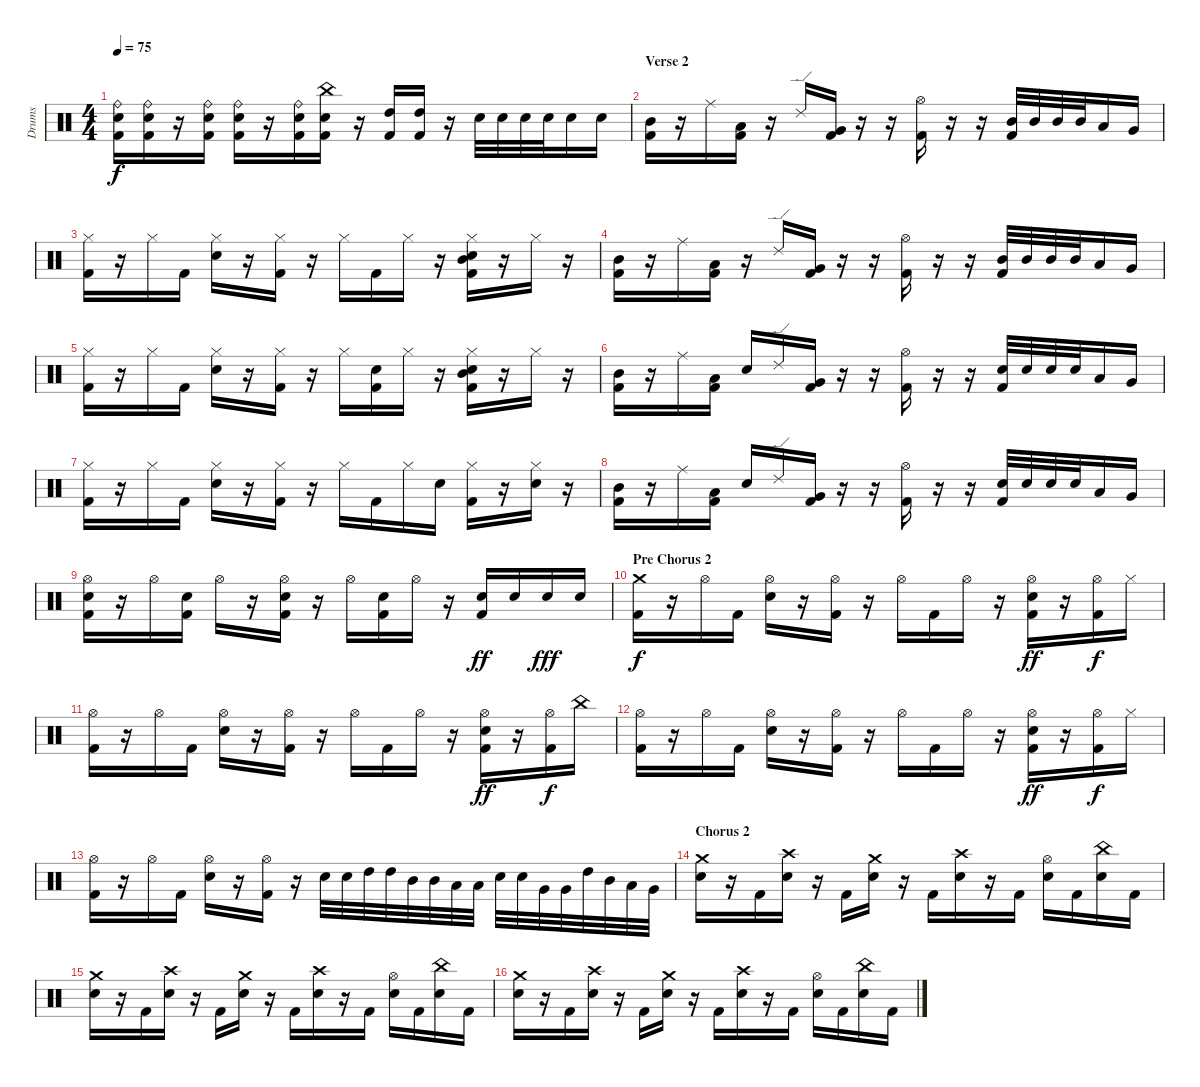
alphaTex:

\track ("Drums" "Drums") {instrument percussion}
\staff {score}
\articulation defaults
\ts (4 4)
\tempo 75
\clef neutral
\ks c
("Ride (bell)" "Snare (hit) 2" "Kick (hit) 2").16{dy f} ("Ride (bell)" "Snare (hit) 2" "Kick (hit) 2").16 r.16 ("Ride (bell)" "Snare (hit) 2" "Kick (hit) 2").16 ("Ride (bell)" "Snare (hit) 2" "Kick (hit) 2").16 r.16 ("Ride (bell)" "Snare (hit) 2" "Kick (hit) 2").16 ("China (hit)" "Snare (hit) 2" "Kick (hit) 2").16 r.16 ("High Tom (hit)" "Kick (hit) 2").16 ("High Tom (hit)" "Kick (hit) 2").16 r.16 "Snare (hit) 2".32 "Snare (hit) 2".32 "Snare (hit) 2".32 "Snare (hit) 2".32 "Snare (hit) 2".16 "Snare (hit) 2".16 |
\section ("" "Verse 2")
("Mid Tom (hit)" "Kick (hit) 2").16 r.16 "Ride (middle)".16 ("Low Tom (hit)" "Kick (hit) 2").16 r.16 "Ride (edge) 2".16 ("Very Low Tom (hit)" "Kick (hit) 2").16 r.16 r.16 ("Hi-Hat (open)" "Kick (hit) 2").16 r.16 r.16 ("Mid Tom (hit)" "Kick (hit) 2").32 "Mid Tom (hit)".32 "Mid Tom (hit)".32 "Mid Tom (hit)".32 "Low Tom (hit)".16 "Very Low Tom (hit)".16 |
("Hi-Hat (closed)" "Kick (hit) 2").16 r.16 "Hi-Hat (closed)".16 "Kick (hit) 2".16 ("Hi-Hat (closed)" "Snare (hit) 2").16 r.16 ("Hi-Hat (closed)" "Kick (hit) 2").16 r.16 "Hi-Hat (closed)".16 "Kick (hit) 2".16 "Hi-Hat (closed)".16 r.16 ("Mid Tom (hit)" "Hi-Hat (closed)" "Snare (hit) 2" "Kick (hit) 2").16 r.16 "Hi-Hat (closed)".16 r.16 |
("Mid Tom (hit)" "Kick (hit) 2").16 r.16 "Ride (middle)".16 ("Low Tom (hit)" "Kick (hit) 2").16 r.16 "Ride (edge) 2".16 ("Very Low Tom (hit)" "Kick (hit) 2").16 r.16 r.16 ("Hi-Hat (open)" "Kick (hit) 2").16 r.16 r.16 ("Mid Tom (hit)" "Kick (hit) 2").32 "Mid Tom (hit)".32 "Mid Tom (hit)".32 "Mid Tom (hit)".32 "Low Tom (hit)".16 "Very Low Tom (hit)".16 |
("Hi-Hat (closed)" "Kick (hit) 2").16 r.16 "Hi-Hat (closed)".16 "Kick (hit) 2".16 ("Hi-Hat (closed)" "Snare (hit) 2").16 r.16 ("Hi-Hat (closed)" "Kick (hit) 2").16 r.16 "Hi-Hat (closed)".16 ("Snare (hit) 2" "Kick (hit) 2").16 "Hi-Hat (closed)".16 r.16 ("Mid Tom (hit)" "Hi-Hat (closed)" "Snare (hit) 2" "Kick (hit) 2").16 r.16 "Hi-Hat (closed)".16 r.16 |
("Mid Tom (hit)" "Kick (hit) 2").16 r.16 "Ride (middle)".16 ("Low Tom (hit)" "Kick (hit) 2").16 "Snare (hit) 2".16 "Ride (edge) 2".16 ("Very Low Tom (hit)" "Kick (hit) 2").16 r.16 r.16 ("Hi-Hat (open)" "Kick (hit) 2").16 r.16 r.16 ("Snare (hit) 2" "Kick (hit) 2").32 "Snare (hit) 2".32 "Snare (hit) 2".32 "Snare (hit) 2".32 "Low Tom (hit)".16 "Very Low Tom (hit)".16 |
("Hi-Hat (closed)" "Kick (hit) 2").16 r.16 "Hi-Hat (closed)".16 "Kick (hit) 2".16 ("Hi-Hat (closed)" "Snare (hit) 2").16 r.16 ("Hi-Hat (closed)" "Kick (hit) 2").16 r.16 "Hi-Hat (closed)".16 "Kick (hit) 2".16 "Hi-Hat (closed)".16 "Snare (hit) 2".16 ("Hi-Hat (closed)" "Kick (hit) 2").16 r.16 ("Hi-Hat (closed)" "Snare (hit) 2").16 r.16 |
("Mid Tom (hit)" "Kick (hit) 2").16 r.16 "Ride (middle)".16 ("Low Tom (hit)" "Kick (hit) 2").16 "Snare (hit) 2".16 "Ride (edge) 2".16 ("Very Low Tom (hit)" "Kick (hit) 2").16 r.16 r.16 ("Hi-Hat (open)" "Kick (hit) 2").16 r.16 r.16 ("Snare (hit) 2" "Kick (hit) 2").32 "Snare (hit) 2".32 "Snare (hit) 2".32 "Snare (hit) 2".32 "Low Tom (hit)".16 "Very Low Tom (hit)".16 |
("Hi-Hat (open)" "Snare (hit) 2" "Kick (hit) 2").16 r.16 "Hi-Hat (open)".16 ("Snare (hit) 2" "Kick (hit) 2").16 "Hi-Hat (open)".16 r.16 ("Hi-Hat (open)" "Snare (hit) 2" "Kick (hit) 2").16 r.16 "Hi-Hat (open)".16 ("Snare (hit) 2" "Kick (hit) 2").16 "Hi-Hat (open)".16 r.16 ("Snare (hit) 2" "Kick (hit) 2").16{dy ff} "Snare (hit) 2".16 "Snare (hit) 2".16{dy fff} "Snare (hit) 2".16 |
\section ("" "Pre Chorus 2")
("Crash medium (hit)" "Kick (hit) 2").16{dy f} r.16 "Hi-Hat (open)".16 "Kick (hit) 2".16 ("Hi-Hat (open)" "Snare (hit) 2").16 r.16 ("Hi-Hat (open)" "Kick (hit) 2").16 r.16 "Hi-Hat (open)".16 "Kick (hit) 2".16 "Hi-Hat (open)".16 r.16 ("Hi-Hat (open)" "Snare (hit) 2" "Kick (hit) 2").16{dy ff} r.16 ("Hi-Hat (open)" "Kick (hit) 2").16{dy f} "Hi-Hat (closed)".16 |
("Hi-Hat (open)" "Kick (hit) 2").16 r.16 "Hi-Hat (open)".16 "Kick (hit) 2".16 ("Hi-Hat (open)" "Snare (hit) 2").16 r.16 ("Hi-Hat (open)" "Kick (hit) 2").16 r.16 "Hi-Hat (open)".16 "Kick (hit) 2".16 "Hi-Hat (open)".16 r.16 ("Hi-Hat (open)" "Snare (hit) 2" "Kick (hit) 2").16{dy ff} r.16 ("Hi-Hat (open)" "Kick (hit) 2").16{dy f} "China (hit)".16 |
("Hi-Hat (open)" "Kick (hit) 2").16 r.16 "Hi-Hat (open)".16 "Kick (hit) 2".16 ("Hi-Hat (open)" "Snare (hit) 2").16 r.16 ("Hi-Hat (open)" "Kick (hit) 2").16 r.16 "Hi-Hat (open)".16 "Kick (hit) 2".16 "Hi-Hat (open)".16 r.16 ("Hi-Hat (open)" "Snare (hit) 2" "Kick (hit) 2").16{dy ff} r.16 ("Hi-Hat (open)" "Kick (hit) 2").16{dy f} "Hi-Hat (closed)".16 |
("Hi-Hat (open)" "Kick (hit) 2").16 r.16 "Hi-Hat (open)".16 "Kick (hit) 2".16 ("Hi-Hat (open)" "Snare (hit) 2").16 r.16 ("Hi-Hat (open)" "Kick (hit) 2").16 r.16 "Snare (hit) 2".32 "Snare (hit) 2".32 "High Tom (hit)".32 "High Tom (hit)".32 "Mid Tom (hit)".32 "Mid Tom (hit)".32 "Low Tom (hit)".32 "Low Tom (hit)".32 "Snare (hit) 2".32 "Snare (hit) 2".32 "Very Low Tom (hit)".32 "Very Low Tom (hit)".32 "High Tom (hit)".32 "Mid Tom (hit)".32 "Low Tom (hit)".32 "Very Low Tom (hit)".32 |
\section ("" "Chorus 2")
("Crash medium (hit)" "Snare (hit) 2").16 r.16 "Kick (hit) 2".16 ("Crash high (hit)" "Snare (hit) 2").16 r.16 "Kick (hit) 2".16 ("Crash medium (hit)" "Snare (hit) 2").16 r.16 "Kick (hit) 2".16 ("Crash high (hit)" "Snare (hit) 2").16 r.16 "Kick (hit) 2".16 ("Hi-Hat (open)" "Snare (hit) 2").16 "Kick (hit) 2".16 ("China (hit)" "Snare (hit) 2").16 "Kick (hit) 2".16 |
("Crash medium (hit)" "Snare (hit) 2").16 r.16 "Kick (hit) 2".16 ("Crash high (hit)" "Snare (hit) 2").16 r.16 "Kick (hit) 2".16 ("Crash medium (hit)" "Snare (hit) 2").16 r.16 "Kick (hit) 2".16 ("Crash high (hit)" "Snare (hit) 2").16 r.16 "Kick (hit) 2".16 ("Hi-Hat (open)" "Snare (hit) 2").16 "Kick (hit) 2".16 ("China (hit)" "Snare (hit) 2").16 "Kick (hit) 2".16 |
("Crash medium (hit)" "Snare (hit) 2").16 r.16 "Kick (hit) 2".16 ("Crash high (hit)" "Snare (hit) 2").16 r.16 "Kick (hit) 2".16 ("Crash medium (hit)" "Snare (hit) 2").16 r.16 "Kick (hit) 2".16 ("Crash high (hit)" "Snare (hit) 2").16 r.16 "Kick (hit) 2".16 ("Hi-Hat (open)" "Snare (hit) 2").16 "Kick (hit) 2".16 ("China (hit)" "Snare (hit) 2").16 "Kick (hit) 2".16
